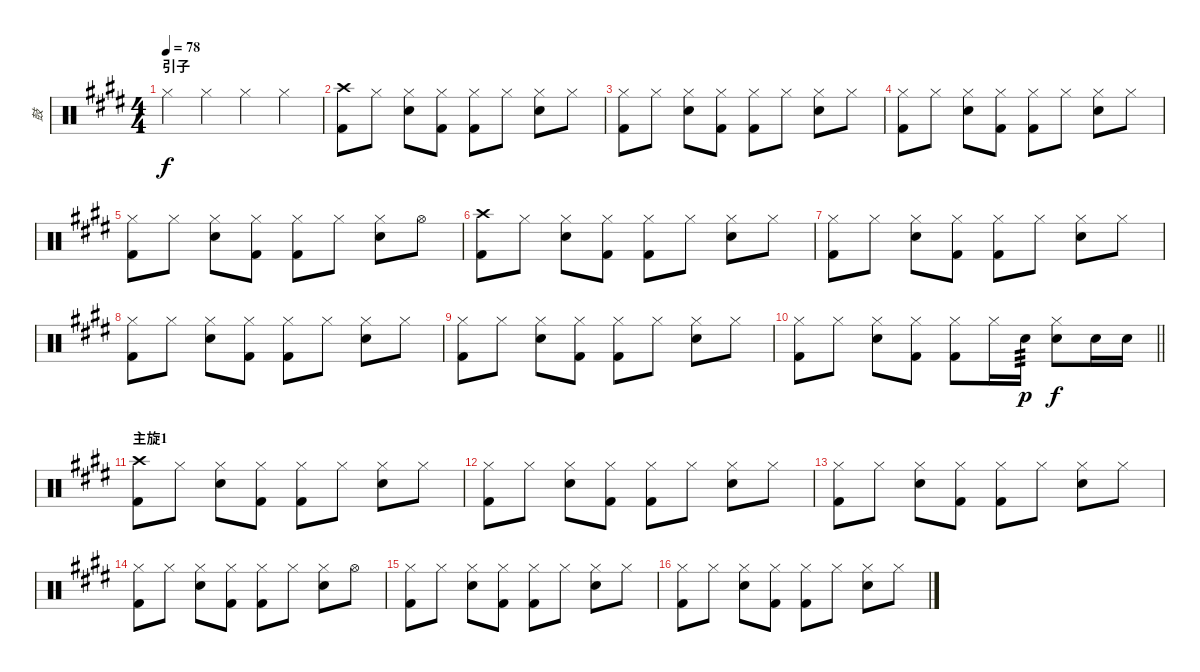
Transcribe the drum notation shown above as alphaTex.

\track ("鼓" "鼓") {instrument percussion}
\staff {score}
\articulation defaults
\ts (4 4)
\section ("" "引子")
\tempo 78
\clef neutral
\ks e "Hi-Hat (closed)".4{dy f} "Hi-Hat (closed)".4 "Hi-Hat (closed)".4 "Hi-Hat (closed)".4
|
("Crash high (hit)" "Kick (hit) 2").8 "Hi-Hat (closed)".8 ("Hi-Hat (closed)" "Electric Snare (hit)").8 ("Hi-Hat (closed)" "Kick (hit) 2").8 ("Hi-Hat (closed)" "Kick (hit) 2").8 "Hi-Hat (closed)".8 ("Hi-Hat (closed)" "Electric Snare (hit)").8 "Hi-Hat (closed)".8 |
("Hi-Hat (closed)" "Kick (hit) 2").8 "Hi-Hat (closed)".8 ("Hi-Hat (closed)" "Electric Snare (hit)").8 ("Hi-Hat (closed)" "Kick (hit) 2").8 ("Hi-Hat (closed)" "Kick (hit) 2").8 "Hi-Hat (closed)".8 ("Hi-Hat (closed)" "Electric Snare (hit)").8 "Hi-Hat (closed)".8 |
("Hi-Hat (closed)" "Kick (hit) 2").8 "Hi-Hat (closed)".8 ("Hi-Hat (closed)" "Electric Snare (hit)").8 ("Hi-Hat (closed)" "Kick (hit) 2").8 ("Hi-Hat (closed)" "Kick (hit) 2").8 "Hi-Hat (closed)".8 ("Hi-Hat (closed)" "Electric Snare (hit)").8 "Hi-Hat (closed)".8 |
("Hi-Hat (closed)" "Kick (hit) 2").8 "Hi-Hat (closed)".8 ("Hi-Hat (closed)" "Electric Snare (hit)").8 ("Hi-Hat (closed)" "Kick (hit) 2").8 ("Hi-Hat (closed)" "Kick (hit) 2").8 "Hi-Hat (closed)".8 ("Hi-Hat (closed)" "Electric Snare (hit)").8 "Hi-Hat (open)".8 |
("Crash high (hit)" "Kick (hit) 2").8 "Hi-Hat (closed)".8 ("Hi-Hat (closed)" "Electric Snare (hit)").8 ("Hi-Hat (closed)" "Kick (hit) 2").8 ("Hi-Hat (closed)" "Kick (hit) 2").8 "Hi-Hat (closed)".8 ("Hi-Hat (closed)" "Electric Snare (hit)").8 "Hi-Hat (closed)".8 |
("Hi-Hat (closed)" "Kick (hit) 2").8 "Hi-Hat (closed)".8 ("Hi-Hat (closed)" "Electric Snare (hit)").8 ("Hi-Hat (closed)" "Kick (hit) 2").8 ("Hi-Hat (closed)" "Kick (hit) 2").8 "Hi-Hat (closed)".8 ("Hi-Hat (closed)" "Electric Snare (hit)").8 "Hi-Hat (closed)".8 |
("Hi-Hat (closed)" "Kick (hit) 2").8 "Hi-Hat (closed)".8 ("Hi-Hat (closed)" "Electric Snare (hit)").8 ("Hi-Hat (closed)" "Kick (hit) 2").8 ("Hi-Hat (closed)" "Kick (hit) 2").8 "Hi-Hat (closed)".8 ("Hi-Hat (closed)" "Electric Snare (hit)").8 "Hi-Hat (closed)".8 |
("Hi-Hat (closed)" "Kick (hit) 2").8 "Hi-Hat (closed)".8 ("Hi-Hat (closed)" "Electric Snare (hit)").8 ("Hi-Hat (closed)" "Kick (hit) 2").8 ("Hi-Hat (closed)" "Kick (hit) 2").8 "Hi-Hat (closed)".8 ("Hi-Hat (closed)" "Electric Snare (hit)").8 "Hi-Hat (closed)".8 |
\barLineRight lightlight
("Hi-Hat (closed)" "Kick (hit) 2").8 "Hi-Hat (closed)".8 ("Hi-Hat (closed)" "Electric Snare (hit)").8 ("Hi-Hat (closed)" "Kick (hit) 2").8 ("Hi-Hat (closed)" "Kick (hit) 2").8 "Hi-Hat (closed)".16 "Electric Snare (hit)".16{tp 3 dy p} ("Hi-Hat (closed)" "Electric Snare (hit)").8{dy f} "Electric Snare (hit)".16 "Electric Snare (hit)".16 |
\section ("" "主旋1")
("Crash high (hit)" "Kick (hit) 2").8 "Hi-Hat (closed)".8 ("Hi-Hat (closed)" "Electric Snare (hit)").8 ("Hi-Hat (closed)" "Kick (hit) 2").8 ("Hi-Hat (closed)" "Kick (hit) 2").8 "Hi-Hat (closed)".8 ("Hi-Hat (closed)" "Electric Snare (hit)").8 "Hi-Hat (closed)".8 |
("Hi-Hat (closed)" "Kick (hit) 2").8 "Hi-Hat (closed)".8 ("Hi-Hat (closed)" "Electric Snare (hit)").8 ("Hi-Hat (closed)" "Kick (hit) 2").8 ("Hi-Hat (closed)" "Kick (hit) 2").8 "Hi-Hat (closed)".8 ("Hi-Hat (closed)" "Electric Snare (hit)").8 "Hi-Hat (closed)".8 |
("Hi-Hat (closed)" "Kick (hit) 2").8 "Hi-Hat (closed)".8 ("Hi-Hat (closed)" "Electric Snare (hit)").8 ("Hi-Hat (closed)" "Kick (hit) 2").8 ("Hi-Hat (closed)" "Kick (hit) 2").8 "Hi-Hat (closed)".8 ("Hi-Hat (closed)" "Electric Snare (hit)").8 "Hi-Hat (closed)".8 |
("Hi-Hat (closed)" "Kick (hit) 2").8 "Hi-Hat (closed)".8 ("Hi-Hat (closed)" "Electric Snare (hit)").8 ("Hi-Hat (closed)" "Kick (hit) 2").8 ("Hi-Hat (closed)" "Kick (hit) 2").8 "Hi-Hat (closed)".8 ("Hi-Hat (closed)" "Electric Snare (hit)").8 "Hi-Hat (open)".8 |
("Hi-Hat (closed)" "Kick (hit) 2").8 "Hi-Hat (closed)".8 ("Hi-Hat (closed)" "Electric Snare (hit)").8 ("Hi-Hat (closed)" "Kick (hit) 2").8 ("Hi-Hat (closed)" "Kick (hit) 2").8 "Hi-Hat (closed)".8 ("Hi-Hat (closed)" "Electric Snare (hit)").8 "Hi-Hat (closed)".8 |
("Hi-Hat (closed)" "Kick (hit) 2").8 "Hi-Hat (closed)".8 ("Hi-Hat (closed)" "Electric Snare (hit)").8 ("Hi-Hat (closed)" "Kick (hit) 2").8 ("Hi-Hat (closed)" "Kick (hit) 2").8 "Hi-Hat (closed)".8 ("Hi-Hat (closed)" "Electric Snare (hit)").8 "Hi-Hat (closed)".8
